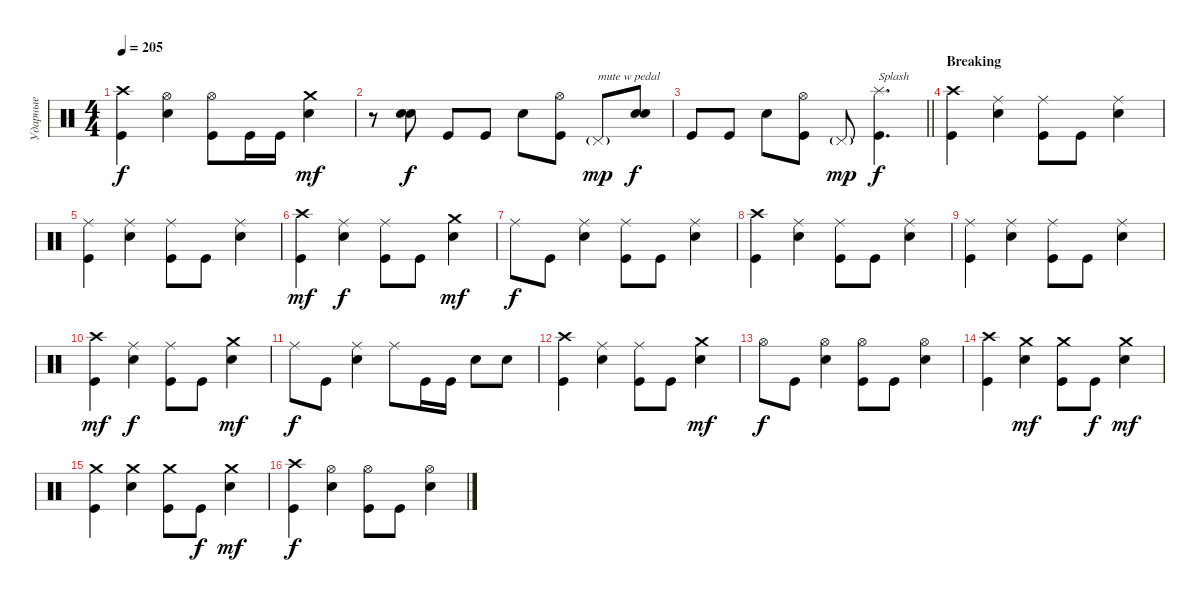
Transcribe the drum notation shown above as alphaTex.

\track ("Ударные" "Ударные") {instrument percussion}
\staff {score}
\articulation defaults
\ts (4 4)
\tempo 205
\clef neutral
\ks aminor
("Kick (hit)" "Crash high (hit)").4{dy f} ("Snare (hit) 2" "Hi-Hat (open)").4 ("Kick (hit)" "Hi-Hat (open)").8 "Kick (hit)".16 "Kick (hit)".16 ("Snare (hit) 2" "Crash medium (hit)").4{dy mf} |
r.8 ("Snare (hit) 2" "Snare (hit) 2").8{bd 240 dy f} "Kick (hit)".8 "Kick (hit)".8 "Snare (hit) 2".8 ("Kick (hit)" "Hi-Hat (open)").8 "Pedal Hi-Hat (hit)"{g}.8{txt "mute w pedal" dy mp} ("Snare (hit) 2" "Snare (hit) 2").8{bd 240 dy f} |
\barLineRight lightlight "Kick (hit)".8 "Kick (hit)".8 "Snare (hit) 2".8
("Kick (hit)" "Hi-Hat (open)").8 "Pedal Hi-Hat (hit)"{g}.8{dy mp} ("Kick (hit)" "Splash (hit)").4{d txt "Splash" dy f} |
\section ("" "Breaking")
("Kick (hit)" "Crash high (hit)").4 ("Snare (hit) 2" "Ride (middle)").4 ("Kick (hit)" "Ride (middle)").8 "Kick (hit)".8 ("Snare (hit) 2" "Ride (middle)").4 |
("Kick (hit)" "Ride (middle)").4 ("Snare (hit) 2" "Ride (middle)").4 ("Kick (hit)" "Ride (middle)").8 "Kick (hit)".8 ("Snare (hit) 2" "Ride (middle)").4 |
("Kick (hit)" "Crash high (hit)").4{dy mf} ("Snare (hit) 2" "Ride (middle)").4{dy f} ("Kick (hit)" "Ride (middle)").8 "Kick (hit)".8 ("Snare (hit) 2" "Crash medium (hit)").4{dy mf} |
"Ride (middle)".8{dy f} "Kick (hit)".8 ("Snare (hit) 2" "Ride (middle)").4 ("Kick (hit)" "Ride (middle)").8 "Kick (hit)".8 ("Snare (hit) 2" "Ride (middle)").4 |
("Kick (hit)" "Crash high (hit)").4 ("Snare (hit) 2" "Ride (middle)").4 ("Kick (hit)" "Ride (middle)").8 "Kick (hit)".8 ("Snare (hit) 2" "Ride (middle)").4 |
("Kick (hit)" "Ride (middle)").4 ("Snare (hit) 2" "Ride (middle)").4 ("Kick (hit)" "Ride (middle)").8 "Kick (hit)".8 ("Snare (hit) 2" "Ride (middle)").4 |
("Kick (hit)" "Crash high (hit)").4{dy mf} ("Snare (hit) 2" "Ride (middle)").4{dy f} ("Kick (hit)" "Ride (middle)").8 "Kick (hit)".8 ("Snare (hit) 2" "Crash medium (hit)").4{dy mf} |
"Ride (middle)".8{dy f} "Kick (hit)".8 ("Snare (hit) 2" "Ride (middle)").4 "Ride (middle)".8 "Kick (hit)".16 "Kick (hit)".16 "Snare (hit) 2".8 "Snare (hit) 2".8 |
("Kick (hit)" "Crash high (hit)").4 ("Snare (hit) 2" "Ride (middle)").4 ("Kick (hit)" "Ride (middle)").8 "Kick (hit)".8 ("Snare (hit) 2" "Crash medium (hit)").4{dy mf} |
"Hi-Hat (open)".8{dy f} "Kick (hit)".8 ("Snare (hit) 2" "Hi-Hat (open)").4 ("Kick (hit)" "Hi-Hat (open)").8 "Kick (hit)".8 ("Snare (hit) 2" "Hi-Hat (open)").4 |
("Kick (hit)" "Crash high (hit)").4 ("Snare (hit) 2" "Crash medium (hit)").4{dy mf} ("Kick (hit)" "Crash medium (hit)").8 "Kick (hit)".8{dy f} ("Snare (hit) 2" "Crash medium (hit)").4{dy mf} |
("Crash medium (hit)" "Kick (hit)").4 ("Snare (hit) 2" "Crash medium (hit)").4 ("Kick (hit)" "Crash medium (hit)").8 "Kick (hit)".8{dy f} ("Snare (hit) 2" "Crash medium (hit)").4{dy mf} |
("Kick (hit)" "Crash high (hit)").4{dy f} ("Snare (hit) 2" "Hi-Hat (open)").4 ("Kick (hit)" "Hi-Hat (open)").8 "Kick (hit)".8 ("Snare (hit) 2" "Hi-Hat (open)").4
